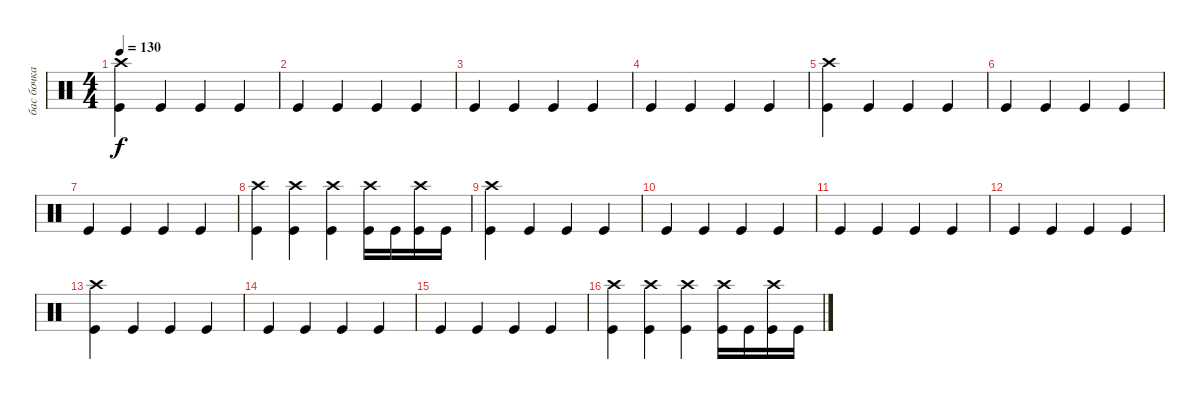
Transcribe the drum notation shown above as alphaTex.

\track ("бас бочка" "бас бочка") {instrument percussion}
\staff {score}
\articulation defaults
\ts (4 4)
\tempo 130
\clef neutral
\ks c
("Crash high (hit)" "Kick (hit)").4{dy f} "Kick (hit)".4 "Kick (hit)".4 "Kick (hit)".4 |
"Kick (hit)".4 "Kick (hit)".4 "Kick (hit)".4 "Kick (hit)".4 |
"Kick (hit)".4 "Kick (hit)".4 "Kick (hit)".4 "Kick (hit)".4 |
"Kick (hit)".4 "Kick (hit)".4 "Kick (hit)".4 "Kick (hit)".4 |
("Crash high (hit)" "Kick (hit)").4 "Kick (hit)".4 "Kick (hit)".4 "Kick (hit)".4 |
"Kick (hit)".4 "Kick (hit)".4 "Kick (hit)".4 "Kick (hit)".4 |
"Kick (hit)".4 "Kick (hit)".4 "Kick (hit)".4 "Kick (hit)".4 |
("Crash high (hit)" "Kick (hit)").4 ("Crash high (hit)" "Kick (hit)").4 ("Crash high (hit)" "Kick (hit)").4 ("Crash high (hit)" "Kick (hit)").16 "Kick (hit)".16 ("Crash high (hit)" "Kick (hit)").16 "Kick (hit)".16 |
("Crash high (hit)" "Kick (hit)").4 "Kick (hit)".4 "Kick (hit)".4 "Kick (hit)".4 |
"Kick (hit)".4 "Kick (hit)".4 "Kick (hit)".4 "Kick (hit)".4 |
"Kick (hit)".4 "Kick (hit)".4 "Kick (hit)".4 "Kick (hit)".4 |
"Kick (hit)".4 "Kick (hit)".4 "Kick (hit)".4 "Kick (hit)".4 |
("Crash high (hit)" "Kick (hit)").4 "Kick (hit)".4 "Kick (hit)".4 "Kick (hit)".4 |
"Kick (hit)".4 "Kick (hit)".4 "Kick (hit)".4 "Kick (hit)".4 |
"Kick (hit)".4 "Kick (hit)".4 "Kick (hit)".4 "Kick (hit)".4 |
("Crash high (hit)" "Kick (hit)").4 ("Crash high (hit)" "Kick (hit)").4 ("Crash high (hit)" "Kick (hit)").4 ("Crash high (hit)" "Kick (hit)").16 "Kick (hit)".16 ("Crash high (hit)" "Kick (hit)").16 "Kick (hit)".16
